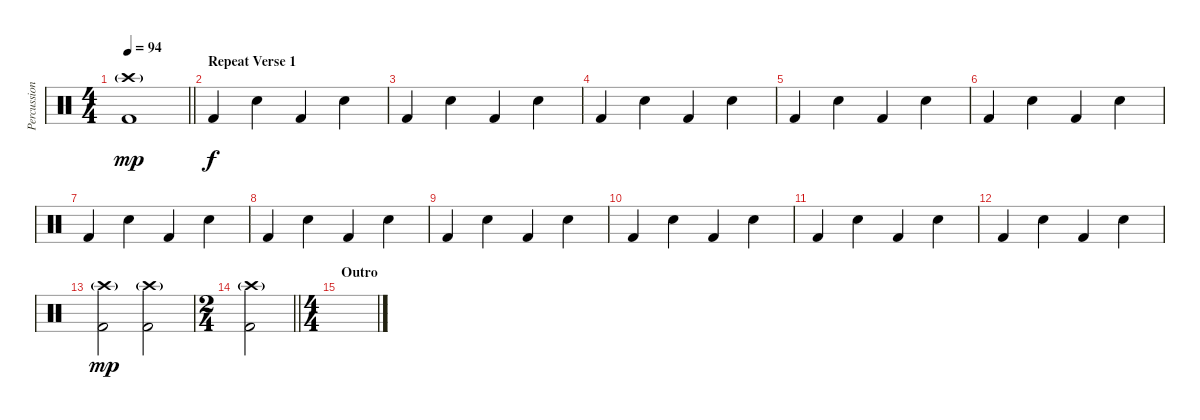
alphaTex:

\track ("Percussion" "Percussion") {instrument percussion}
\staff {score}
\articulation defaults
\ts (4 4)
\tempo 94
\clef neutral
\barLineRight lightlight
\ks c
("Crash high (hit)"{g} "Kick (hit) 2").1{dy mp} |
\section ("" "Repeat Verse 1")
"Kick (hit) 2".4{dy f} "Snare (hit) 2".4 "Kick (hit) 2".4 "Snare (hit) 2".4 |
"Kick (hit) 2".4 "Snare (hit) 2".4 "Kick (hit) 2".4 "Snare (hit) 2".4 |
"Kick (hit) 2".4 "Snare (hit) 2".4 "Kick (hit) 2".4 "Snare (hit) 2".4 |
"Kick (hit) 2".4 "Snare (hit) 2".4 "Kick (hit) 2".4 "Snare (hit) 2".4 |
"Kick (hit) 2".4 "Snare (hit) 2".4 "Kick (hit) 2".4 "Snare (hit) 2".4 |
"Kick (hit) 2".4 "Snare (hit) 2".4 "Kick (hit) 2".4 "Snare (hit) 2".4 |
"Kick (hit) 2".4 "Snare (hit) 2".4 "Kick (hit) 2".4 "Snare (hit) 2".4 |
"Kick (hit) 2".4 "Snare (hit) 2".4 "Kick (hit) 2".4 "Snare (hit) 2".4 |
"Kick (hit) 2".4 "Snare (hit) 2".4 "Kick (hit) 2".4 "Snare (hit) 2".4 |
"Kick (hit) 2".4 "Snare (hit) 2".4 "Kick (hit) 2".4 "Snare (hit) 2".4 |
"Kick (hit) 2".4 "Snare (hit) 2".4 "Kick (hit) 2".4 "Snare (hit) 2".4 |
("Crash high (hit)"{g} "Kick (hit) 2").2{dy mp} ("Crash high (hit)"{g} "Kick (hit) 2").2 |
\ts (2 4)
\barLineRight lightlight
("Crash high (hit)"{g} "Kick (hit) 2").2 |
\ts (4 4)
\section ("" "Outro")
